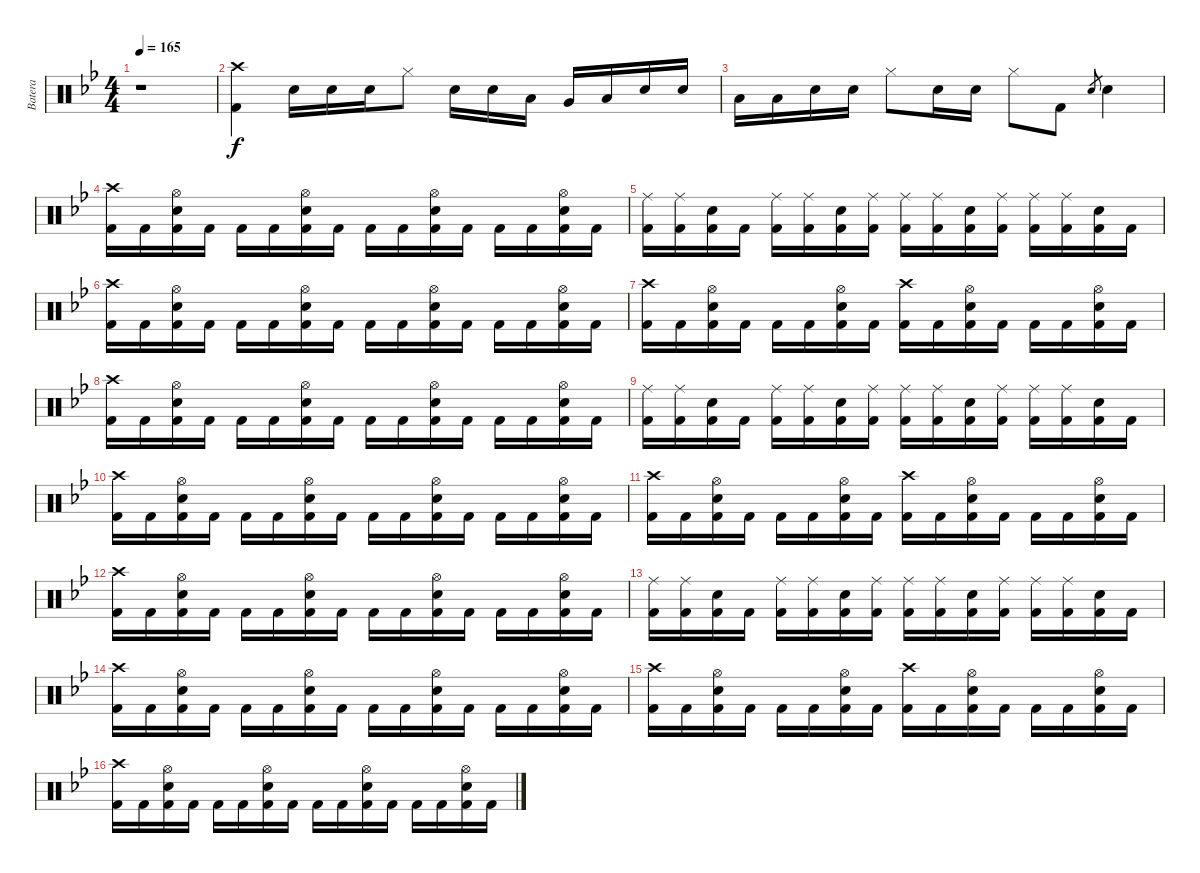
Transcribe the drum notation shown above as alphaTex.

\track ("Batera" "Batera") {instrument percussion}
\staff {score}
\articulation defaults
\ts (4 4)
\tempo 165
\clef neutral
\ks bb
r.1{dy f} |
("Crash high (hit)" "Kick (hit) 2").4 "Electric Snare (hit)".16 "Electric Snare (hit)".16 "Electric Snare (hit)".16 "Hi-Hat (closed)".8 "Electric Snare (hit)".16 "Electric Snare (hit)".16 "Low Floor Tom (hit)".16 "Very Low Tom (hit)".16 "Low Tom (hit)".16 "Electric Snare (hit)".16 "Electric Snare (hit)".16 |
"Low Tom (hit)".16 "Low Floor Tom (hit)".16 "Electric Snare (hit)".16 "Electric Snare (hit)".16 "Hi-Hat (closed)".8 "Electric Snare (hit)".16 "Electric Snare (hit)".16 "Hi-Hat (closed)".8 "Kick (hit) 2".8 "Electric Snare (hit)".8{gr} "Electric Snare (hit)".4 |
("Crash high (hit)" "Kick (hit) 2").16 "Kick (hit) 2".16 ("Hi-Hat (open)" "Electric Snare (hit)" "Kick (hit) 2").16 "Kick (hit) 2".16 "Kick (hit) 2".16 "Kick (hit) 2".16 ("Hi-Hat (open)" "Electric Snare (hit)" "Kick (hit) 2").16 "Kick (hit) 2".16 "Kick (hit) 2".16 "Kick (hit) 2".16 ("Hi-Hat (open)" "Electric Snare (hit)" "Kick (hit) 2").16 "Kick (hit) 2".16 "Kick (hit) 2".16 "Kick (hit) 2".16 ("Hi-Hat (open)" "Electric Snare (hit)" "Kick (hit) 2").16 "Kick (hit) 2".16 |
("Ride (middle)" "Kick (hit) 2").16 ("Ride (middle)" "Kick (hit) 2").16 ("Electric Snare (hit)" "Kick (hit) 2").16 "Kick (hit) 2".16 ("Ride (middle)" "Kick (hit) 2").16 ("Ride (middle)" "Kick (hit) 2").16 ("Electric Snare (hit)" "Kick (hit) 2").16 ("Ride (middle)" "Kick (hit) 2").16 ("Ride (middle)" "Kick (hit) 2").16 ("Ride (middle)" "Kick (hit) 2").16 ("Electric Snare (hit)" "Kick (hit) 2").16 ("Ride (middle)" "Kick (hit) 2").16 ("Ride (middle)" "Kick (hit) 2").16 ("Ride (middle)" "Kick (hit) 2").16 ("Electric Snare (hit)" "Kick (hit) 2").16 "Kick (hit) 2".16 |
("Crash high (hit)" "Kick (hit) 2").16 "Kick (hit) 2".16 ("Hi-Hat (open)" "Electric Snare (hit)" "Kick (hit) 2").16 "Kick (hit) 2".16 "Kick (hit) 2".16 "Kick (hit) 2".16 ("Hi-Hat (open)" "Electric Snare (hit)" "Kick (hit) 2").16 "Kick (hit) 2".16 "Kick (hit) 2".16 "Kick (hit) 2".16 ("Hi-Hat (open)" "Electric Snare (hit)" "Kick (hit) 2").16 "Kick (hit) 2".16 "Kick (hit) 2".16 "Kick (hit) 2".16 ("Hi-Hat (open)" "Electric Snare (hit)" "Kick (hit) 2").16 "Kick (hit) 2".16 |
("Crash high (hit)" "Kick (hit) 2").16 "Kick (hit) 2".16 ("Hi-Hat (open)" "Electric Snare (hit)" "Kick (hit) 2").16 "Kick (hit) 2".16 "Kick (hit) 2".16 "Kick (hit) 2".16 ("Hi-Hat (open)" "Electric Snare (hit)" "Kick (hit) 2").16 "Kick (hit) 2".16 ("Crash high (hit)" "Kick (hit) 2").16 "Kick (hit) 2".16 ("Hi-Hat (open)" "Electric Snare (hit)" "Kick (hit) 2").16 "Kick (hit) 2".16 "Kick (hit) 2".16 "Kick (hit) 2".16 ("Hi-Hat (open)" "Electric Snare (hit)" "Kick (hit) 2").16 "Kick (hit) 2".16 |
("Crash high (hit)" "Kick (hit) 2").16 "Kick (hit) 2".16 ("Hi-Hat (open)" "Electric Snare (hit)" "Kick (hit) 2").16 "Kick (hit) 2".16 "Kick (hit) 2".16 "Kick (hit) 2".16 ("Hi-Hat (open)" "Electric Snare (hit)" "Kick (hit) 2").16 "Kick (hit) 2".16 "Kick (hit) 2".16 "Kick (hit) 2".16 ("Hi-Hat (open)" "Electric Snare (hit)" "Kick (hit) 2").16 "Kick (hit) 2".16 "Kick (hit) 2".16 "Kick (hit) 2".16 ("Hi-Hat (open)" "Electric Snare (hit)" "Kick (hit) 2").16 "Kick (hit) 2".16 |
("Ride (middle)" "Kick (hit) 2").16 ("Ride (middle)" "Kick (hit) 2").16 ("Electric Snare (hit)" "Kick (hit) 2").16 "Kick (hit) 2".16 ("Ride (middle)" "Kick (hit) 2").16 ("Ride (middle)" "Kick (hit) 2").16 ("Electric Snare (hit)" "Kick (hit) 2").16 ("Ride (middle)" "Kick (hit) 2").16 ("Ride (middle)" "Kick (hit) 2").16 ("Ride (middle)" "Kick (hit) 2").16 ("Electric Snare (hit)" "Kick (hit) 2").16 ("Ride (middle)" "Kick (hit) 2").16 ("Ride (middle)" "Kick (hit) 2").16 ("Ride (middle)" "Kick (hit) 2").16 ("Electric Snare (hit)" "Kick (hit) 2").16 "Kick (hit) 2".16 |
("Crash high (hit)" "Kick (hit) 2").16 "Kick (hit) 2".16 ("Hi-Hat (open)" "Electric Snare (hit)" "Kick (hit) 2").16 "Kick (hit) 2".16 "Kick (hit) 2".16 "Kick (hit) 2".16 ("Hi-Hat (open)" "Electric Snare (hit)" "Kick (hit) 2").16 "Kick (hit) 2".16 "Kick (hit) 2".16 "Kick (hit) 2".16 ("Hi-Hat (open)" "Electric Snare (hit)" "Kick (hit) 2").16 "Kick (hit) 2".16 "Kick (hit) 2".16 "Kick (hit) 2".16 ("Hi-Hat (open)" "Electric Snare (hit)" "Kick (hit) 2").16 "Kick (hit) 2".16 |
("Crash high (hit)" "Kick (hit) 2").16 "Kick (hit) 2".16 ("Hi-Hat (open)" "Electric Snare (hit)" "Kick (hit) 2").16 "Kick (hit) 2".16 "Kick (hit) 2".16 "Kick (hit) 2".16 ("Hi-Hat (open)" "Electric Snare (hit)" "Kick (hit) 2").16 "Kick (hit) 2".16 ("Crash high (hit)" "Kick (hit) 2").16 "Kick (hit) 2".16 ("Hi-Hat (open)" "Electric Snare (hit)" "Kick (hit) 2").16 "Kick (hit) 2".16 "Kick (hit) 2".16 "Kick (hit) 2".16 ("Hi-Hat (open)" "Electric Snare (hit)" "Kick (hit) 2").16 "Kick (hit) 2".16 |
("Crash high (hit)" "Kick (hit) 2").16 "Kick (hit) 2".16 ("Hi-Hat (open)" "Electric Snare (hit)" "Kick (hit) 2").16 "Kick (hit) 2".16 "Kick (hit) 2".16 "Kick (hit) 2".16 ("Hi-Hat (open)" "Electric Snare (hit)" "Kick (hit) 2").16 "Kick (hit) 2".16 "Kick (hit) 2".16 "Kick (hit) 2".16 ("Hi-Hat (open)" "Electric Snare (hit)" "Kick (hit) 2").16 "Kick (hit) 2".16 "Kick (hit) 2".16 "Kick (hit) 2".16 ("Hi-Hat (open)" "Electric Snare (hit)" "Kick (hit) 2").16 "Kick (hit) 2".16 |
("Ride (middle)" "Kick (hit) 2").16 ("Ride (middle)" "Kick (hit) 2").16 ("Electric Snare (hit)" "Kick (hit) 2").16 "Kick (hit) 2".16 ("Ride (middle)" "Kick (hit) 2").16 ("Ride (middle)" "Kick (hit) 2").16 ("Electric Snare (hit)" "Kick (hit) 2").16 ("Ride (middle)" "Kick (hit) 2").16 ("Ride (middle)" "Kick (hit) 2").16 ("Ride (middle)" "Kick (hit) 2").16 ("Electric Snare (hit)" "Kick (hit) 2").16 ("Ride (middle)" "Kick (hit) 2").16 ("Ride (middle)" "Kick (hit) 2").16 ("Ride (middle)" "Kick (hit) 2").16 ("Electric Snare (hit)" "Kick (hit) 2").16 "Kick (hit) 2".16 |
("Crash high (hit)" "Kick (hit) 2").16 "Kick (hit) 2".16 ("Hi-Hat (open)" "Electric Snare (hit)" "Kick (hit) 2").16 "Kick (hit) 2".16 "Kick (hit) 2".16 "Kick (hit) 2".16 ("Hi-Hat (open)" "Electric Snare (hit)" "Kick (hit) 2").16 "Kick (hit) 2".16 "Kick (hit) 2".16 "Kick (hit) 2".16 ("Hi-Hat (open)" "Electric Snare (hit)" "Kick (hit) 2").16 "Kick (hit) 2".16 "Kick (hit) 2".16 "Kick (hit) 2".16 ("Hi-Hat (open)" "Electric Snare (hit)" "Kick (hit) 2").16 "Kick (hit) 2".16 |
("Crash high (hit)" "Kick (hit) 2").16 "Kick (hit) 2".16 ("Hi-Hat (open)" "Electric Snare (hit)" "Kick (hit) 2").16 "Kick (hit) 2".16 "Kick (hit) 2".16 "Kick (hit) 2".16 ("Hi-Hat (open)" "Electric Snare (hit)" "Kick (hit) 2").16 "Kick (hit) 2".16 ("Crash high (hit)" "Kick (hit) 2").16 "Kick (hit) 2".16 ("Hi-Hat (open)" "Electric Snare (hit)" "Kick (hit) 2").16 "Kick (hit) 2".16 "Kick (hit) 2".16 "Kick (hit) 2".16 ("Hi-Hat (open)" "Electric Snare (hit)" "Kick (hit) 2").16 "Kick (hit) 2".16 |
("Crash high (hit)" "Kick (hit) 2").16 "Kick (hit) 2".16 ("Hi-Hat (open)" "Electric Snare (hit)" "Kick (hit) 2").16 "Kick (hit) 2".16 "Kick (hit) 2".16 "Kick (hit) 2".16 ("Hi-Hat (open)" "Electric Snare (hit)" "Kick (hit) 2").16 "Kick (hit) 2".16 "Kick (hit) 2".16 "Kick (hit) 2".16 ("Hi-Hat (open)" "Electric Snare (hit)" "Kick (hit) 2").16 "Kick (hit) 2".16 "Kick (hit) 2".16 "Kick (hit) 2".16 ("Hi-Hat (open)" "Electric Snare (hit)" "Kick (hit) 2").16 "Kick (hit) 2".16
